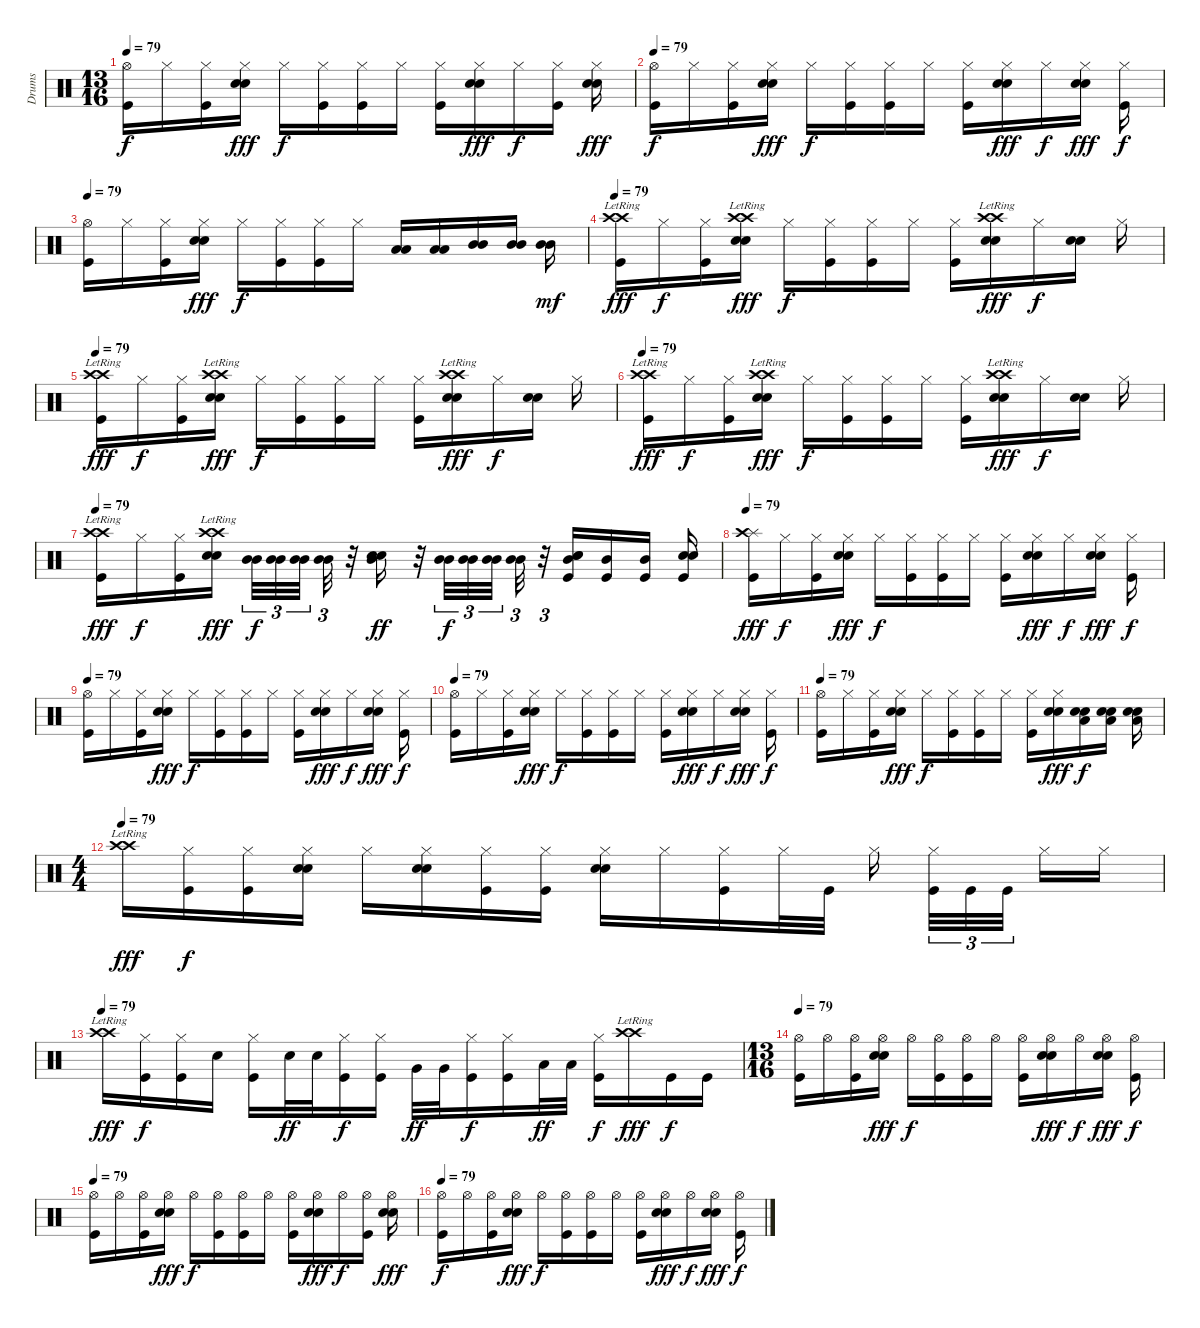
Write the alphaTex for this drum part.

\track ("Drums" "Drums") {instrument percussion}
\staff {score}
\articulation defaults
\ts (13 16)
\tempo 79
\clef neutral
\ks c
("Hi-Hat (open)" "Kick (hit)").16{dy f} "Hi-Hat (closed)".16 ("Hi-Hat (closed)" "Kick (hit)").16 ("Hi-Hat (closed)" "Electric Snare (hit)" "Electric Snare (hit)").16{dy fff} "Hi-Hat (closed)".16{dy f} ("Hi-Hat (closed)" "Kick (hit)").16 ("Hi-Hat (closed)" "Kick (hit)").16 "Hi-Hat (closed)".16 ("Hi-Hat (closed)" "Kick (hit)").16 ("Hi-Hat (closed)" "Electric Snare (hit)" "Electric Snare (hit)").16{dy fff} "Hi-Hat (closed)".16{dy f} ("Hi-Hat (closed)" "Kick (hit)").16 ("Hi-Hat (closed)" "Electric Snare (hit)" "Electric Snare (hit)").16{dy fff} |
\tempo 79
("Hi-Hat (open)" "Kick (hit)").16{dy f} "Hi-Hat (closed)".16 ("Hi-Hat (closed)" "Kick (hit)").16 ("Hi-Hat (closed)" "Electric Snare (hit)" "Electric Snare (hit)").16{dy fff} "Hi-Hat (closed)".16{dy f} ("Hi-Hat (closed)" "Kick (hit)").16 ("Hi-Hat (closed)" "Kick (hit)").16 "Hi-Hat (closed)".16 ("Hi-Hat (closed)" "Kick (hit)").16 ("Hi-Hat (closed)" "Electric Snare (hit)" "Electric Snare (hit)").16{dy fff} "Hi-Hat (closed)".16{dy f} ("Hi-Hat (closed)" "Electric Snare (hit)" "Electric Snare (hit)").16{dy fff} ("Hi-Hat (closed)" "Kick (hit)").16{dy f} |
\tempo 79
("Hi-Hat (open)" "Kick (hit)").16 "Hi-Hat (closed)".16 ("Hi-Hat (closed)" "Kick (hit)").16 ("Hi-Hat (closed)" "Electric Snare (hit)" "Electric Snare (hit)").16{dy fff} "Hi-Hat (closed)".16{dy f} ("Hi-Hat (closed)" "Kick (hit)").16 ("Hi-Hat (closed)" "Kick (hit)").16 "Hi-Hat (closed)".16 ("Low Floor Tom (hit)" "Low Floor Tom (hit)").16 ("Low Floor Tom (hit)" "Low Floor Tom (hit)").16 ("Mid Tom (hit)" "Mid Tom (hit)").16 ("Mid Tom (hit)" "Mid Tom (hit)").16 ("Mid Tom (hit)" "Mid Tom (hit)").16{dy mf} |
\tempo 79
("Crash high (hit)" "Crash high (hit)"{lr} "Kick (hit)").16{dy fff} "Hi-Hat (closed)".16{dy f} ("Hi-Hat (closed)" "Kick (hit)").16 ("Crash high (hit)" "Crash high (hit)"{lr} "Electric Snare (hit)" "Electric Snare (hit)").16{dy fff} "Hi-Hat (closed)".16{dy f} ("Hi-Hat (closed)" "Kick (hit)").16 ("Hi-Hat (closed)" "Kick (hit)").16 "Hi-Hat (closed)".16 ("Hi-Hat (closed)" "Kick (hit)").16 ("Crash high (hit)" "Crash high (hit)"{lr} "Electric Snare (hit)" "Electric Snare (hit)").16{dy fff} "Hi-Hat (closed)".16{dy f} ("Electric Snare (hit)" "Electric Snare (hit)").16 "Hi-Hat (closed)".16 |
\tempo 79
("Crash high (hit)" "Crash high (hit)"{lr} "Kick (hit)").16{dy fff} "Hi-Hat (closed)".16{dy f} ("Hi-Hat (closed)" "Kick (hit)").16 ("Crash high (hit)" "Crash high (hit)"{lr} "Electric Snare (hit)" "Electric Snare (hit)").16{dy fff} "Hi-Hat (closed)".16{dy f} ("Hi-Hat (closed)" "Kick (hit)").16 ("Hi-Hat (closed)" "Kick (hit)").16 "Hi-Hat (closed)".16 ("Hi-Hat (closed)" "Kick (hit)").16 ("Crash high (hit)" "Crash high (hit)"{lr} "Electric Snare (hit)" "Electric Snare (hit)").16{dy fff} "Hi-Hat (closed)".16{dy f} ("Electric Snare (hit)" "Electric Snare (hit)").16 "Hi-Hat (closed)".16 |
\tempo 79
("Crash high (hit)" "Crash high (hit)"{lr} "Kick (hit)").16{dy fff} "Hi-Hat (closed)".16{dy f} ("Hi-Hat (closed)" "Kick (hit)").16 ("Crash high (hit)" "Crash high (hit)"{lr} "Electric Snare (hit)" "Electric Snare (hit)").16{dy fff} "Hi-Hat (closed)".16{dy f} ("Hi-Hat (closed)" "Kick (hit)").16 ("Hi-Hat (closed)" "Kick (hit)").16 "Hi-Hat (closed)".16 ("Hi-Hat (closed)" "Kick (hit)").16 ("Crash high (hit)" "Crash high (hit)"{lr} "Electric Snare (hit)" "Electric Snare (hit)").16{dy fff} "Hi-Hat (closed)".16{dy f} ("Electric Snare (hit)" "Electric Snare (hit)").16 "Hi-Hat (closed)".16 |
\tempo 79
("Crash high (hit)" "Crash high (hit)"{lr} "Kick (hit)").16{dy fff} "Hi-Hat (closed)".16{dy f} ("Hi-Hat (closed)" "Kick (hit)").16 ("Crash high (hit)" "Crash high (hit)"{lr} "Electric Snare (hit)" "Electric Snare (hit)").16{dy fff} ("Mid Tom (hit)" "Mid Tom (hit)").32{tu (3 2) dy f} ("Mid Tom (hit)" "Mid Tom (hit)").32{tu (3 2)} ("Mid Tom (hit)" "Mid Tom (hit)").32{tu (3 2)} ("Mid Tom (hit)" "Mid Tom (hit)").32{tu (3 2)} r.32 ("Mid Tom (hit)" "Electric Snare (hit)" "Electric Snare (hit)").16{dy ff} r.32 ("Mid Tom (hit)" "Mid Tom (hit)").32{tu (3 2) dy f} ("Mid Tom (hit)" "Mid Tom (hit)").32{tu (3 2)} ("Mid Tom (hit)" "Mid Tom (hit)").32{tu (3 2)} ("Mid Tom (hit)" "Mid Tom (hit)").32{tu (3 2)} r.32{tu (3 2)} ("Mid Tom (hit)" "Electric Snare (hit)" "Electric Snare (hit)" "Kick (hit)").16 ("Mid Tom (hit)" "Kick (hit)").16 ("Mid Tom (hit)" "Kick (hit)").16 ("Electric Snare (hit)" "Electric Snare (hit)" "Kick (hit)").16 |
\tempo 79
("Splash (hit)" "Crash high (hit)" "Kick (hit)").16{dy fff} "Hi-Hat (closed)".16{dy f} ("Hi-Hat (closed)" "Kick (hit)").16 ("Hi-Hat (closed)" "Electric Snare (hit)" "Electric Snare (hit)").16{dy fff} "Hi-Hat (closed)".16{dy f} ("Hi-Hat (closed)" "Kick (hit)").16 ("Hi-Hat (closed)" "Kick (hit)").16 "Hi-Hat (closed)".16 ("Hi-Hat (closed)" "Kick (hit)").16 ("Hi-Hat (closed)" "Electric Snare (hit)" "Electric Snare (hit)").16{dy fff} "Hi-Hat (closed)".16{dy f} ("Hi-Hat (closed)" "Electric Snare (hit)" "Electric Snare (hit)").16{dy fff} ("Hi-Hat (closed)" "Kick (hit)").16{dy f} |
\tempo 79
("Hi-Hat (open)" "Kick (hit)").16 "Hi-Hat (closed)".16 ("Hi-Hat (closed)" "Kick (hit)").16 ("Hi-Hat (closed)" "Electric Snare (hit)" "Electric Snare (hit)").16{dy fff} "Hi-Hat (closed)".16{dy f} ("Hi-Hat (closed)" "Kick (hit)").16 ("Hi-Hat (closed)" "Kick (hit)").16 "Hi-Hat (closed)".16 ("Hi-Hat (closed)" "Kick (hit)").16 ("Hi-Hat (closed)" "Electric Snare (hit)" "Electric Snare (hit)").16{dy fff} "Hi-Hat (closed)".16{dy f} ("Hi-Hat (closed)" "Electric Snare (hit)" "Electric Snare (hit)").16{dy fff} ("Hi-Hat (closed)" "Kick (hit)").16{dy f} |
\tempo 79
("Hi-Hat (open)" "Kick (hit)").16 "Hi-Hat (closed)".16 ("Hi-Hat (closed)" "Kick (hit)").16 ("Hi-Hat (closed)" "Electric Snare (hit)" "Electric Snare (hit)").16{dy fff} "Hi-Hat (closed)".16{dy f} ("Hi-Hat (closed)" "Kick (hit)").16 ("Hi-Hat (closed)" "Kick (hit)").16 "Hi-Hat (closed)".16 ("Hi-Hat (closed)" "Kick (hit)").16 ("Hi-Hat (closed)" "Electric Snare (hit)" "Electric Snare (hit)").16{dy fff} "Hi-Hat (closed)".16{dy f} ("Hi-Hat (closed)" "Electric Snare (hit)" "Electric Snare (hit)").16{dy fff} ("Hi-Hat (closed)" "Kick (hit)").16{dy f} |
\tempo 79
("Hi-Hat (open)" "Kick (hit)").16 "Hi-Hat (closed)".16 ("Hi-Hat (closed)" "Kick (hit)").16 ("Hi-Hat (closed)" "Electric Snare (hit)" "Electric Snare (hit)").16{dy fff} "Hi-Hat (closed)".16{dy f} ("Hi-Hat (closed)" "Kick (hit)").16 ("Hi-Hat (closed)" "Kick (hit)").16 "Hi-Hat (closed)".16 ("Hi-Hat (closed)" "Kick (hit)").16 ("Hi-Hat (closed)" "Electric Snare (hit)" "Electric Snare (hit)").16{dy fff} ("Low Floor Tom (hit)" "Electric Snare (hit)" "Electric Snare (hit)").16{dy f} ("Low Floor Tom (hit)" "Electric Snare (hit)" "Electric Snare (hit)").16 ("Low Floor Tom (hit)" "Electric Snare (hit)" "Electric Snare (hit)").16 |
\ts (4 4)
\tempo 79
("Crash high (hit)"{lr} "Crash high (hit)"{lr}).16{dy fff} ("Hi-Hat (closed)" "Kick (hit)").16{dy f} ("Hi-Hat (closed)" "Kick (hit)").16 ("Hi-Hat (closed)" "Electric Snare (hit)" "Electric Snare (hit)").16 "Hi-Hat (closed)".16 ("Hi-Hat (closed)" "Electric Snare (hit)" "Electric Snare (hit)").16 ("Hi-Hat (closed)" "Kick (hit)").16 ("Hi-Hat (closed)" "Kick (hit)").16 ("Hi-Hat (closed)" "Electric Snare (hit)" "Electric Snare (hit)").16 "Hi-Hat (closed)".16 ("Hi-Hat (closed)" "Kick (hit)").16 "Hi-Hat (closed)".32 "Kick (hit)".32 "Hi-Hat (closed)".16 ("Hi-Hat (closed)" "Kick (hit)").32{tu (3 2)} "Kick (hit)".32{tu (3 2)} "Kick (hit)".32{tu (3 2)} "Hi-Hat (closed)".16 "Hi-Hat (closed)".16 |
\tempo 79
("Crash high (hit)"{lr} "Crash high (hit)"{lr}).16{dy fff} ("Hi-Hat (closed)" "Kick (hit)").16{dy f} ("Hi-Hat (closed)" "Kick (hit)").16 "Electric Snare (hit)".16 ("Hi-Hat (closed)" "Kick (hit)").16 "Electric Snare (hit)".32{dy ff} "Electric Snare (hit)".32 ("Hi-Hat (closed)" "Kick (hit)").16{dy f} ("Hi-Hat (closed)" "Kick (hit)").16 "Very Low Tom (hit)".32{dy ff} "Very Low Tom (hit)".32 ("Hi-Hat (closed)" "Kick (hit)").16{dy f} ("Hi-Hat (closed)" "Kick (hit)").16 "Low Floor Tom (hit)".32{dy ff} "Low Floor Tom (hit)".32 ("Hi-Hat (closed)" "Kick (hit)").16{dy f} ("Crash high (hit)"{lr} "Crash high (hit)"{lr}).16{dy fff} "Kick (hit)".16{dy f} "Kick (hit)".16 |
\ts (13 16)
\tempo 79
("Hi-Hat (open)" "Kick (hit)").16 "Hi-Hat (open)".16 ("Hi-Hat (open)" "Kick (hit)").16 ("Hi-Hat (open)" "Electric Snare (hit)" "Electric Snare (hit)").16{dy fff} "Hi-Hat (open)".16{dy f} ("Hi-Hat (open)" "Kick (hit)").16 ("Hi-Hat (open)" "Kick (hit)").16 "Hi-Hat (open)".16 ("Hi-Hat (open)" "Kick (hit)").16 ("Hi-Hat (open)" "Electric Snare (hit)" "Electric Snare (hit)").16{dy fff} "Hi-Hat (open)".16{dy f} ("Hi-Hat (open)" "Electric Snare (hit)" "Electric Snare (hit)").16{dy fff} ("Hi-Hat (open)" "Kick (hit)").16{dy f} |
\tempo 79
("Hi-Hat (open)" "Kick (hit)").16 "Hi-Hat (open)".16 ("Hi-Hat (open)" "Kick (hit)").16 ("Hi-Hat (open)" "Electric Snare (hit)" "Electric Snare (hit)").16{dy fff} "Hi-Hat (open)".16{dy f} ("Hi-Hat (open)" "Kick (hit)").16 ("Hi-Hat (open)" "Kick (hit)").16 "Hi-Hat (open)".16 ("Hi-Hat (open)" "Kick (hit)").16 ("Hi-Hat (open)" "Electric Snare (hit)" "Electric Snare (hit)").16{dy fff} "Hi-Hat (open)".16{dy f} ("Hi-Hat (open)" "Kick (hit)").16 ("Hi-Hat (open)" "Electric Snare (hit)" "Electric Snare (hit)").16{dy fff} |
\tempo 79
("Hi-Hat (open)" "Kick (hit)").16{dy f} "Hi-Hat (open)".16 ("Hi-Hat (open)" "Kick (hit)").16 ("Hi-Hat (open)" "Electric Snare (hit)" "Electric Snare (hit)").16{dy fff} "Hi-Hat (open)".16{dy f} ("Hi-Hat (open)" "Kick (hit)").16 ("Hi-Hat (open)" "Kick (hit)").16 "Hi-Hat (open)".16 ("Hi-Hat (open)" "Kick (hit)").16 ("Hi-Hat (open)" "Electric Snare (hit)" "Electric Snare (hit)").16{dy fff} "Hi-Hat (open)".16{dy f} ("Hi-Hat (open)" "Electric Snare (hit)" "Electric Snare (hit)").16{dy fff} ("Hi-Hat (open)" "Kick (hit)").16{dy f}
